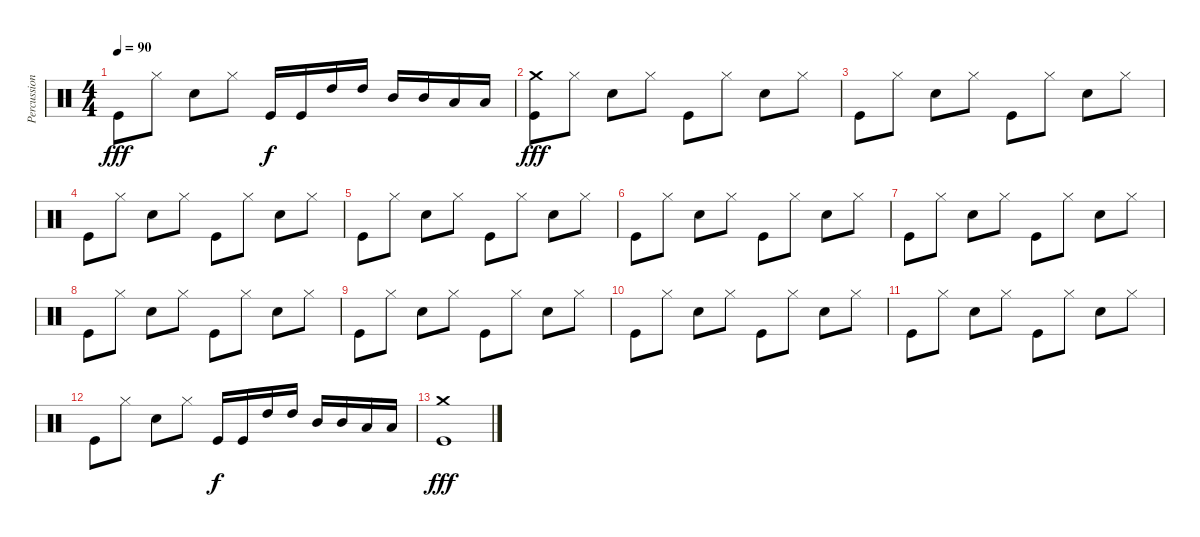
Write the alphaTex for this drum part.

\track ("Percussion" "Percussion") {instrument percussion}
\staff {score}
\articulation defaults
\ts (4 4)
\tempo 90
\clef neutral
\ks c "Kick (hit)".8{dy fff} "Hi-Hat (closed)".8 "Snare (hit) 2".8 "Hi-Hat (closed)".8 "Kick (hit)".16{dy f} "Kick (hit)".16 "High Tom (hit)".16 "High Tom (hit)".16 "Mid Tom (hit)".16 "Mid Tom (hit)".16 "Low Tom (hit)".16 "Low Tom (hit)".16
|
("Kick (hit)" "Crash medium (hit)").8{dy fff} "Hi-Hat (closed)".8 "Snare (hit) 2".8 "Hi-Hat (closed)".8 "Kick (hit)".8 "Hi-Hat (closed)".8 "Snare (hit) 2".8 "Hi-Hat (closed)".8 |
"Kick (hit)".8 "Hi-Hat (closed)".8 "Snare (hit) 2".8 "Hi-Hat (closed)".8 "Kick (hit)".8 "Hi-Hat (closed)".8 "Snare (hit) 2".8 "Hi-Hat (closed)".8 |
"Kick (hit)".8 "Hi-Hat (closed)".8 "Snare (hit) 2".8 "Hi-Hat (closed)".8 "Kick (hit)".8 "Hi-Hat (closed)".8 "Snare (hit) 2".8 "Hi-Hat (closed)".8 |
"Kick (hit)".8 "Hi-Hat (closed)".8 "Snare (hit) 2".8 "Hi-Hat (closed)".8 "Kick (hit)".8 "Hi-Hat (closed)".8 "Snare (hit) 2".8 "Hi-Hat (closed)".8 |
"Kick (hit)".8 "Hi-Hat (closed)".8 "Snare (hit) 2".8 "Hi-Hat (closed)".8 "Kick (hit)".8 "Hi-Hat (closed)".8 "Snare (hit) 2".8 "Hi-Hat (closed)".8 |
"Kick (hit)".8 "Hi-Hat (closed)".8 "Snare (hit) 2".8 "Hi-Hat (closed)".8 "Kick (hit)".8 "Hi-Hat (closed)".8 "Snare (hit) 2".8 "Hi-Hat (closed)".8 |
"Kick (hit)".8 "Hi-Hat (closed)".8 "Snare (hit) 2".8 "Hi-Hat (closed)".8 "Kick (hit)".8 "Hi-Hat (closed)".8 "Snare (hit) 2".8 "Hi-Hat (closed)".8 |
"Kick (hit)".8 "Hi-Hat (closed)".8 "Snare (hit) 2".8 "Hi-Hat (closed)".8 "Kick (hit)".8 "Hi-Hat (closed)".8 "Snare (hit) 2".8 "Hi-Hat (closed)".8 |
"Kick (hit)".8 "Hi-Hat (closed)".8 "Snare (hit) 2".8 "Hi-Hat (closed)".8 "Kick (hit)".8 "Hi-Hat (closed)".8 "Snare (hit) 2".8 "Hi-Hat (closed)".8 |
"Kick (hit)".8 "Hi-Hat (closed)".8 "Snare (hit) 2".8 "Hi-Hat (closed)".8 "Kick (hit)".8 "Hi-Hat (closed)".8 "Snare (hit) 2".8 "Hi-Hat (closed)".8 |
"Kick (hit)".8 "Hi-Hat (closed)".8 "Snare (hit) 2".8 "Hi-Hat (closed)".8 "Kick (hit)".16{dy f} "Kick (hit)".16 "High Tom (hit)".16 "High Tom (hit)".16 "Mid Tom (hit)".16 "Mid Tom (hit)".16 "Low Tom (hit)".16 "Low Tom (hit)".16 |
("Kick (hit)" "Crash medium (hit)").1{dy fff}
